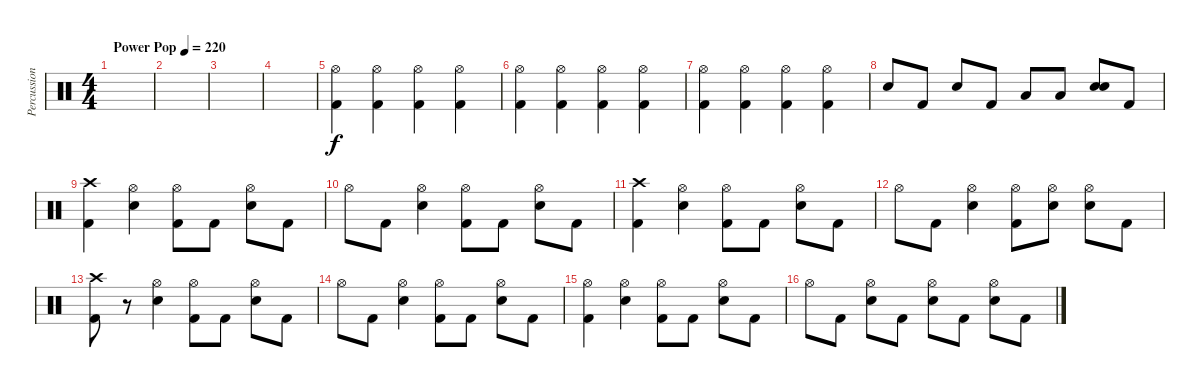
\track ("Percussion" "Percussion") {instrument percussion}
\staff {score}
\articulation defaults
\ts (4 4)
\tempo (220 "Power Pop")
\clef neutral
\ks c
|
|
|
|
("Hi-Hat (open)" "Kick (hit) 2").4 ("Hi-Hat (open)" "Kick (hit) 2").4 ("Hi-Hat (open)" "Kick (hit) 2").4 ("Hi-Hat (open)" "Kick (hit) 2").4 |
("Hi-Hat (open)" "Kick (hit) 2").4 ("Hi-Hat (open)" "Kick (hit) 2").4 ("Hi-Hat (open)" "Kick (hit) 2").4 ("Hi-Hat (open)" "Kick (hit) 2").4 |
("Hi-Hat (open)" "Kick (hit) 2").4 ("Hi-Hat (open)" "Kick (hit) 2").4 ("Hi-Hat (open)" "Kick (hit) 2").4 ("Hi-Hat (open)" "Kick (hit) 2").4 |
"Electric Snare (hit)".8 "Kick (hit) 2".8 "Electric Snare (hit)".8 "Kick (hit) 2".8 "Low Floor Tom (hit)".8 "Low Floor Tom (hit)".8 ("Electric Snare (hit)" "Electric Snare (hit)").8 "Kick (hit) 2".8 |
("Crash high (hit)" "Kick (hit) 2").4 ("Hi-Hat (open)" "Electric Snare (hit)").4 ("Hi-Hat (open)" "Kick (hit) 2").8 "Kick (hit) 2".8 ("Hi-Hat (open)" "Electric Snare (hit)").8 "Kick (hit) 2".8 |
"Hi-Hat (open)".8 "Kick (hit) 2".8 ("Hi-Hat (open)" "Electric Snare (hit)").4 ("Hi-Hat (open)" "Kick (hit) 2").8 "Kick (hit) 2".8 ("Hi-Hat (open)" "Electric Snare (hit)").8 "Kick (hit) 2".8 |
("Crash high (hit)" "Kick (hit) 2").4 ("Hi-Hat (open)" "Electric Snare (hit)").4 ("Hi-Hat (open)" "Kick (hit) 2").8 "Kick (hit) 2".8 ("Hi-Hat (open)" "Electric Snare (hit)").8 "Kick (hit) 2".8 |
"Hi-Hat (open)".8 "Kick (hit) 2".8 ("Hi-Hat (open)" "Electric Snare (hit)").4 ("Hi-Hat (open)" "Kick (hit) 2").8 ("Hi-Hat (open)" "Electric Snare (hit)").8 ("Hi-Hat (open)" "Electric Snare (hit)").8 "Kick (hit) 2".8 |
("Crash high (hit)" "Kick (hit) 2").8 r.8 ("Hi-Hat (open)" "Electric Snare (hit)").4 ("Hi-Hat (open)" "Kick (hit) 2").8 "Kick (hit) 2".8 ("Hi-Hat (open)" "Electric Snare (hit)").8 "Kick (hit) 2".8 |
"Hi-Hat (open)".8 "Kick (hit) 2".8 ("Hi-Hat (open)" "Electric Snare (hit)").4 ("Hi-Hat (open)" "Kick (hit) 2").8 "Kick (hit) 2".8 ("Hi-Hat (open)" "Electric Snare (hit)").8 "Kick (hit) 2".8 |
("Hi-Hat (open)" "Kick (hit) 2").4 ("Hi-Hat (open)" "Electric Snare (hit)").4 ("Hi-Hat (open)" "Kick (hit) 2").8 "Kick (hit) 2".8 ("Hi-Hat (open)" "Electric Snare (hit)").8 "Kick (hit) 2".8 |
"Hi-Hat (open)".8 "Kick (hit) 2".8 ("Hi-Hat (open)" "Electric Snare (hit)").8 "Kick (hit) 2".8 ("Hi-Hat (open)" "Electric Snare (hit)").8 "Kick (hit) 2".8 ("Hi-Hat (open)" "Electric Snare (hit)").8 "Kick (hit) 2".8
